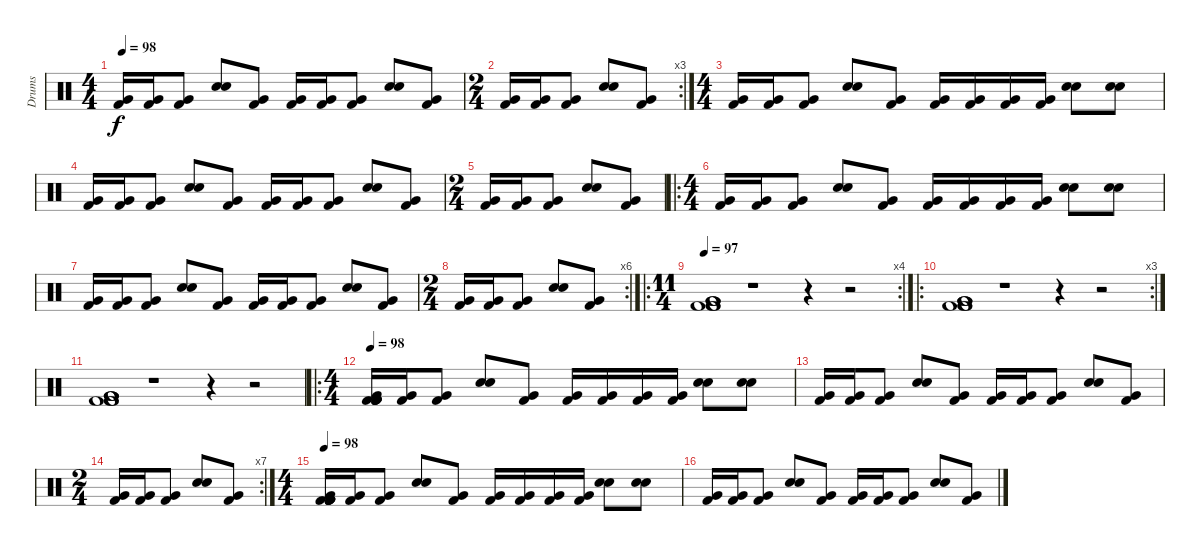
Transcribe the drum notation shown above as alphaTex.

\track ("Drums" "Drums") {instrument percussion}
\staff {score}
\articulation defaults
\ts (4 4)
\tempo 98
\clef neutral
\ks c
("Very Low Tom (hit)" "Kick (hit) 2").16{dy f} ("Very Low Tom (hit)" "Kick (hit) 2").16 ("Very Low Tom (hit)" "Kick (hit) 2").8 ("Electric Snare (hit)" "Snare (hit) 2").8 ("Very Low Tom (hit)" "Kick (hit) 2").8 ("Very Low Tom (hit)" "Kick (hit) 2").16 ("Very Low Tom (hit)" "Kick (hit) 2").16 ("Very Low Tom (hit)" "Kick (hit) 2").8 ("Electric Snare (hit)" "Snare (hit) 2").8 ("Very Low Tom (hit)" "Kick (hit) 2").8 |
\rc 3
\ts (2 4)
("Very Low Tom (hit)" "Kick (hit) 2").16 ("Very Low Tom (hit)" "Kick (hit) 2").16 ("Very Low Tom (hit)" "Kick (hit) 2").8 ("Electric Snare (hit)" "Snare (hit) 2").8 ("Very Low Tom (hit)" "Kick (hit) 2").8 |
\ts (4 4)
("Very Low Tom (hit)" "Kick (hit) 2").16 ("Very Low Tom (hit)" "Kick (hit) 2").16 ("Very Low Tom (hit)" "Kick (hit) 2").8 ("Electric Snare (hit)" "Snare (hit) 2").8 ("Very Low Tom (hit)" "Kick (hit) 2").8 ("Very Low Tom (hit)" "Kick (hit) 2").16 ("Very Low Tom (hit)" "Kick (hit) 2").16 ("Very Low Tom (hit)" "Kick (hit) 2").16 ("Very Low Tom (hit)" "Kick (hit) 2").16 ("Electric Snare (hit)" "Snare (hit) 2").8 ("Electric Snare (hit)" "Snare (hit) 2").8 |
("Very Low Tom (hit)" "Kick (hit) 2").16 ("Very Low Tom (hit)" "Kick (hit) 2").16 ("Very Low Tom (hit)" "Kick (hit) 2").8 ("Electric Snare (hit)" "Snare (hit) 2").8 ("Very Low Tom (hit)" "Kick (hit) 2").8 ("Very Low Tom (hit)" "Kick (hit) 2").16 ("Very Low Tom (hit)" "Kick (hit) 2").16 ("Very Low Tom (hit)" "Kick (hit) 2").8 ("Electric Snare (hit)" "Snare (hit) 2").8 ("Very Low Tom (hit)" "Kick (hit) 2").8 |
\ts (2 4)
("Very Low Tom (hit)" "Kick (hit) 2").16 ("Very Low Tom (hit)" "Kick (hit) 2").16 ("Very Low Tom (hit)" "Kick (hit) 2").8 ("Electric Snare (hit)" "Snare (hit) 2").8 ("Very Low Tom (hit)" "Kick (hit) 2").8 |
\ro
\ts (4 4)
("Very Low Tom (hit)" "Kick (hit) 2").16 ("Very Low Tom (hit)" "Kick (hit) 2").16 ("Very Low Tom (hit)" "Kick (hit) 2").8 ("Electric Snare (hit)" "Snare (hit) 2").8 ("Very Low Tom (hit)" "Kick (hit) 2").8 ("Very Low Tom (hit)" "Kick (hit) 2").16 ("Very Low Tom (hit)" "Kick (hit) 2").16 ("Very Low Tom (hit)" "Kick (hit) 2").16 ("Very Low Tom (hit)" "Kick (hit) 2").16 ("Electric Snare (hit)" "Snare (hit) 2").8 ("Electric Snare (hit)" "Snare (hit) 2").8 |
("Very Low Tom (hit)" "Kick (hit) 2").16 ("Very Low Tom (hit)" "Kick (hit) 2").16 ("Very Low Tom (hit)" "Kick (hit) 2").8 ("Electric Snare (hit)" "Snare (hit) 2").8 ("Very Low Tom (hit)" "Kick (hit) 2").8 ("Very Low Tom (hit)" "Kick (hit) 2").16 ("Very Low Tom (hit)" "Kick (hit) 2").16 ("Very Low Tom (hit)" "Kick (hit) 2").8 ("Electric Snare (hit)" "Snare (hit) 2").8 ("Very Low Tom (hit)" "Kick (hit) 2").8 |
\rc 6
\ts (2 4)
("Very Low Tom (hit)" "Kick (hit) 2").16 ("Very Low Tom (hit)" "Kick (hit) 2").16 ("Very Low Tom (hit)" "Kick (hit) 2").8 ("Electric Snare (hit)" "Snare (hit) 2").8 ("Very Low Tom (hit)" "Kick (hit) 2").8 |
\ro
\rc 4
\ts (11 4)
\tempo 97
("Very Low Tom (hit)" "Very Low Tom (hit)" "Very Low Tom (hit)" "Kick (hit) 2" "Kick (hit) 2" "Kick (hit) 2").1 r.1 r.4 r.2 |
\ro
\rc 3
("Very Low Tom (hit)" "Very Low Tom (hit)" "Very Low Tom (hit)" "Kick (hit) 2" "Kick (hit) 2" "Kick (hit) 2").1 r.1 r.4 r.2 |
("Very Low Tom (hit)" "Very Low Tom (hit)" "Very Low Tom (hit)" "Kick (hit) 2" "Kick (hit) 2" "Kick (hit) 2").1 r.1 r.4 r.2 |
\ro
\ts (4 4)
\tempo 98
("Kick (hit) 2" "Kick (hit) 2" "Kick (hit) 2" "Kick (hit) 2" "Very Low Tom (hit)" "Kick (hit) 2").16 ("Very Low Tom (hit)" "Kick (hit) 2").16 ("Very Low Tom (hit)" "Kick (hit) 2").8 ("Electric Snare (hit)" "Snare (hit) 2").8 ("Very Low Tom (hit)" "Kick (hit) 2").8 ("Very Low Tom (hit)" "Kick (hit) 2").16 ("Very Low Tom (hit)" "Kick (hit) 2").16 ("Very Low Tom (hit)" "Kick (hit) 2").16 ("Very Low Tom (hit)" "Kick (hit) 2").16 ("Electric Snare (hit)" "Snare (hit) 2").8 ("Electric Snare (hit)" "Snare (hit) 2").8 |
("Very Low Tom (hit)" "Kick (hit) 2").16 ("Very Low Tom (hit)" "Kick (hit) 2").16 ("Very Low Tom (hit)" "Kick (hit) 2").8 ("Electric Snare (hit)" "Snare (hit) 2").8 ("Very Low Tom (hit)" "Kick (hit) 2").8 ("Very Low Tom (hit)" "Kick (hit) 2").16 ("Very Low Tom (hit)" "Kick (hit) 2").16 ("Very Low Tom (hit)" "Kick (hit) 2").8 ("Electric Snare (hit)" "Snare (hit) 2").8 ("Very Low Tom (hit)" "Kick (hit) 2").8 |
\rc 7
\ts (2 4)
("Very Low Tom (hit)" "Kick (hit) 2").16 ("Very Low Tom (hit)" "Kick (hit) 2").16 ("Very Low Tom (hit)" "Kick (hit) 2").8 ("Electric Snare (hit)" "Snare (hit) 2").8 ("Very Low Tom (hit)" "Kick (hit) 2").8 |
\ts (4 4)
\tempo 98
("Kick (hit) 2" "Kick (hit) 2" "Kick (hit) 2" "Kick (hit) 2" "Very Low Tom (hit)" "Kick (hit) 2").16 ("Very Low Tom (hit)" "Kick (hit) 2").16 ("Very Low Tom (hit)" "Kick (hit) 2").8 ("Electric Snare (hit)" "Snare (hit) 2").8 ("Very Low Tom (hit)" "Kick (hit) 2").8 ("Very Low Tom (hit)" "Kick (hit) 2").16 ("Very Low Tom (hit)" "Kick (hit) 2").16 ("Very Low Tom (hit)" "Kick (hit) 2").16 ("Very Low Tom (hit)" "Kick (hit) 2").16 ("Electric Snare (hit)" "Snare (hit) 2").8 ("Electric Snare (hit)" "Snare (hit) 2").8 |
("Very Low Tom (hit)" "Kick (hit) 2").16 ("Very Low Tom (hit)" "Kick (hit) 2").16 ("Very Low Tom (hit)" "Kick (hit) 2").8 ("Electric Snare (hit)" "Snare (hit) 2").8 ("Very Low Tom (hit)" "Kick (hit) 2").8 ("Very Low Tom (hit)" "Kick (hit) 2").16 ("Very Low Tom (hit)" "Kick (hit) 2").16 ("Very Low Tom (hit)" "Kick (hit) 2").8 ("Electric Snare (hit)" "Snare (hit) 2").8 ("Very Low Tom (hit)" "Kick (hit) 2").8
